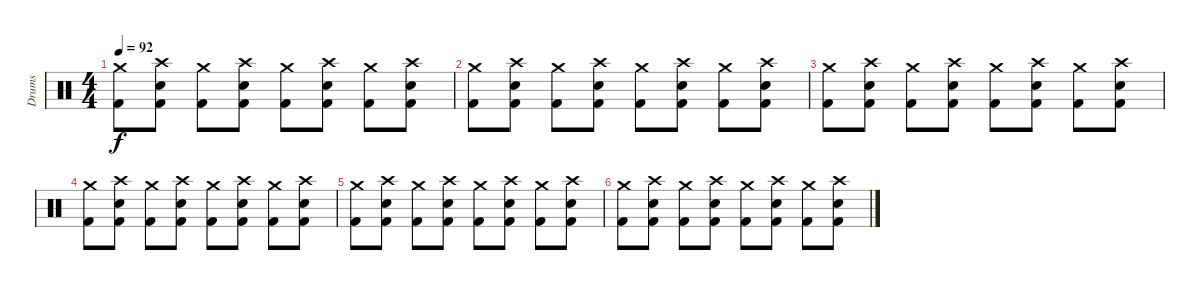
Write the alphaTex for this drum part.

\track ("Drums" "Drums") {instrument percussion}
\staff {score}
\articulation defaults
\ts (4 4)
\tempo 92
\clef neutral
\ks c
("Crash medium (hit)" "Kick (hit) 2").8{dy f} ("Crash high (hit)" "Snare (hit) 2" "Kick (hit) 2").8 ("Crash medium (hit)" "Kick (hit) 2").8 ("Crash high (hit)" "Snare (hit) 2" "Kick (hit) 2").8 ("Crash medium (hit)" "Kick (hit) 2").8 ("Crash high (hit)" "Snare (hit) 2" "Kick (hit) 2").8 ("Crash medium (hit)" "Kick (hit) 2").8 ("Crash high (hit)" "Snare (hit) 2" "Kick (hit) 2").8 |
("Crash medium (hit)" "Kick (hit) 2").8 ("Crash high (hit)" "Snare (hit) 2" "Kick (hit) 2").8 ("Crash medium (hit)" "Kick (hit) 2").8 ("Crash high (hit)" "Snare (hit) 2" "Kick (hit) 2").8 ("Crash medium (hit)" "Kick (hit) 2").8 ("Crash high (hit)" "Snare (hit) 2" "Kick (hit) 2").8 ("Crash medium (hit)" "Kick (hit) 2").8 ("Crash high (hit)" "Snare (hit) 2" "Kick (hit) 2").8 |
("Crash medium (hit)" "Kick (hit) 2").8 ("Crash high (hit)" "Snare (hit) 2" "Kick (hit) 2").8 ("Crash medium (hit)" "Kick (hit) 2").8 ("Crash high (hit)" "Snare (hit) 2" "Kick (hit) 2").8 ("Crash medium (hit)" "Kick (hit) 2").8 ("Crash high (hit)" "Snare (hit) 2" "Kick (hit) 2").8 ("Crash medium (hit)" "Kick (hit) 2").8 ("Crash high (hit)" "Snare (hit) 2" "Kick (hit) 2").8 |
("Crash medium (hit)" "Kick (hit) 2").8 ("Crash high (hit)" "Snare (hit) 2" "Kick (hit) 2").8 ("Crash medium (hit)" "Kick (hit) 2").8 ("Crash high (hit)" "Snare (hit) 2" "Kick (hit) 2").8 ("Crash medium (hit)" "Kick (hit) 2").8 ("Crash high (hit)" "Snare (hit) 2" "Kick (hit) 2").8 ("Crash medium (hit)" "Kick (hit) 2").8 ("Crash high (hit)" "Snare (hit) 2" "Kick (hit) 2").8 |
("Crash medium (hit)" "Kick (hit) 2").8 ("Crash high (hit)" "Snare (hit) 2" "Kick (hit) 2").8 ("Crash medium (hit)" "Kick (hit) 2").8 ("Crash high (hit)" "Snare (hit) 2" "Kick (hit) 2").8 ("Crash medium (hit)" "Kick (hit) 2").8 ("Crash high (hit)" "Snare (hit) 2" "Kick (hit) 2").8 ("Crash medium (hit)" "Kick (hit) 2").8 ("Crash high (hit)" "Snare (hit) 2" "Kick (hit) 2").8 |
("Crash medium (hit)" "Kick (hit) 2").8 ("Crash high (hit)" "Snare (hit) 2" "Kick (hit) 2").8 ("Crash medium (hit)" "Kick (hit) 2").8 ("Crash high (hit)" "Snare (hit) 2" "Kick (hit) 2").8 ("Crash medium (hit)" "Kick (hit) 2").8 ("Crash high (hit)" "Snare (hit) 2" "Kick (hit) 2").8 ("Crash medium (hit)" "Kick (hit) 2").8 ("Crash high (hit)" "Snare (hit) 2" "Kick (hit) 2").8
